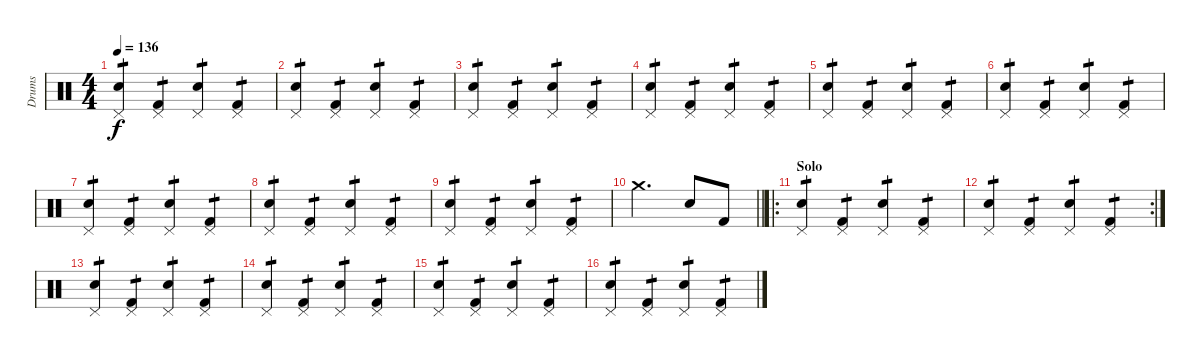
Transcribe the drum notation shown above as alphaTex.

\track ("Drums" "Drums") {instrument percussion}
\staff {score}
\articulation defaults
\ts (4 4)
\tempo 136
\clef neutral
\ks c
("Snare (hit) 2" "Pedal Hi-Hat (hit)").4{tp 1 dy f} ("Kick (hit) 2" "Pedal Hi-Hat (hit)").4{tp 1} ("Snare (hit) 2" "Pedal Hi-Hat (hit)").4{tp 1} ("Kick (hit) 2" "Pedal Hi-Hat (hit)").4{tp 1} |
("Snare (hit) 2" "Pedal Hi-Hat (hit)").4{tp 1} ("Kick (hit) 2" "Pedal Hi-Hat (hit)").4{tp 1} ("Snare (hit) 2" "Pedal Hi-Hat (hit)").4{tp 1} ("Kick (hit) 2" "Pedal Hi-Hat (hit)").4{tp 1} |
("Snare (hit) 2" "Pedal Hi-Hat (hit)").4{tp 1} ("Kick (hit) 2" "Pedal Hi-Hat (hit)").4{tp 1} ("Snare (hit) 2" "Pedal Hi-Hat (hit)").4{tp 1} ("Kick (hit) 2" "Pedal Hi-Hat (hit)").4{tp 1} |
("Snare (hit) 2" "Pedal Hi-Hat (hit)").4{tp 1} ("Kick (hit) 2" "Pedal Hi-Hat (hit)").4{tp 1} ("Snare (hit) 2" "Pedal Hi-Hat (hit)").4{tp 1} ("Kick (hit) 2" "Pedal Hi-Hat (hit)").4{tp 1} |
("Snare (hit) 2" "Pedal Hi-Hat (hit)").4{tp 1} ("Kick (hit) 2" "Pedal Hi-Hat (hit)").4{tp 1} ("Snare (hit) 2" "Pedal Hi-Hat (hit)").4{tp 1} ("Kick (hit) 2" "Pedal Hi-Hat (hit)").4{tp 1} |
("Snare (hit) 2" "Pedal Hi-Hat (hit)").4{tp 1} ("Kick (hit) 2" "Pedal Hi-Hat (hit)").4{tp 1} ("Snare (hit) 2" "Pedal Hi-Hat (hit)").4{tp 1} ("Kick (hit) 2" "Pedal Hi-Hat (hit)").4{tp 1} |
("Snare (hit) 2" "Pedal Hi-Hat (hit)").4{tp 1} ("Kick (hit) 2" "Pedal Hi-Hat (hit)").4{tp 1} ("Snare (hit) 2" "Pedal Hi-Hat (hit)").4{tp 1} ("Kick (hit) 2" "Pedal Hi-Hat (hit)").4{tp 1} |
("Snare (hit) 2" "Pedal Hi-Hat (hit)").4{tp 1} ("Kick (hit) 2" "Pedal Hi-Hat (hit)").4{tp 1} ("Snare (hit) 2" "Pedal Hi-Hat (hit)").4{tp 1} ("Kick (hit) 2" "Pedal Hi-Hat (hit)").4{tp 1} |
("Snare (hit) 2" "Pedal Hi-Hat (hit)").4{tp 1} ("Kick (hit) 2" "Pedal Hi-Hat (hit)").4{tp 1} ("Snare (hit) 2" "Pedal Hi-Hat (hit)").4{tp 1} ("Kick (hit) 2" "Pedal Hi-Hat (hit)").4{tp 1} |
\barLineRight lightlight "Crash medium (hit)".2{d} "Snare (hit) 2".8 "Kick (hit) 2".8
|
\ro
\section ("" "Solo")
("Snare (hit) 2" "Pedal Hi-Hat (hit)").4{tp 1} ("Kick (hit) 2" "Pedal Hi-Hat (hit)").4{tp 1} ("Snare (hit) 2" "Pedal Hi-Hat (hit)").4{tp 1} ("Kick (hit) 2" "Pedal Hi-Hat (hit)").4{tp 1} |
\rc 2
("Snare (hit) 2" "Pedal Hi-Hat (hit)").4{tp 1} ("Kick (hit) 2" "Pedal Hi-Hat (hit)").4{tp 1} ("Snare (hit) 2" "Pedal Hi-Hat (hit)").4{tp 1} ("Kick (hit) 2" "Pedal Hi-Hat (hit)").4{tp 1} |
("Snare (hit) 2" "Pedal Hi-Hat (hit)").4{tp 1} ("Kick (hit) 2" "Pedal Hi-Hat (hit)").4{tp 1} ("Snare (hit) 2" "Pedal Hi-Hat (hit)").4{tp 1} ("Kick (hit) 2" "Pedal Hi-Hat (hit)").4{tp 1} |
("Snare (hit) 2" "Pedal Hi-Hat (hit)").4{tp 1} ("Kick (hit) 2" "Pedal Hi-Hat (hit)").4{tp 1} ("Snare (hit) 2" "Pedal Hi-Hat (hit)").4{tp 1} ("Kick (hit) 2" "Pedal Hi-Hat (hit)").4{tp 1} |
("Snare (hit) 2" "Pedal Hi-Hat (hit)").4{tp 1} ("Kick (hit) 2" "Pedal Hi-Hat (hit)").4{tp 1} ("Snare (hit) 2" "Pedal Hi-Hat (hit)").4{tp 1} ("Kick (hit) 2" "Pedal Hi-Hat (hit)").4{tp 1} |
("Snare (hit) 2" "Pedal Hi-Hat (hit)").4{tp 1} ("Kick (hit) 2" "Pedal Hi-Hat (hit)").4{tp 1} ("Snare (hit) 2" "Pedal Hi-Hat (hit)").4{tp 1} ("Kick (hit) 2" "Pedal Hi-Hat (hit)").4{tp 1}
